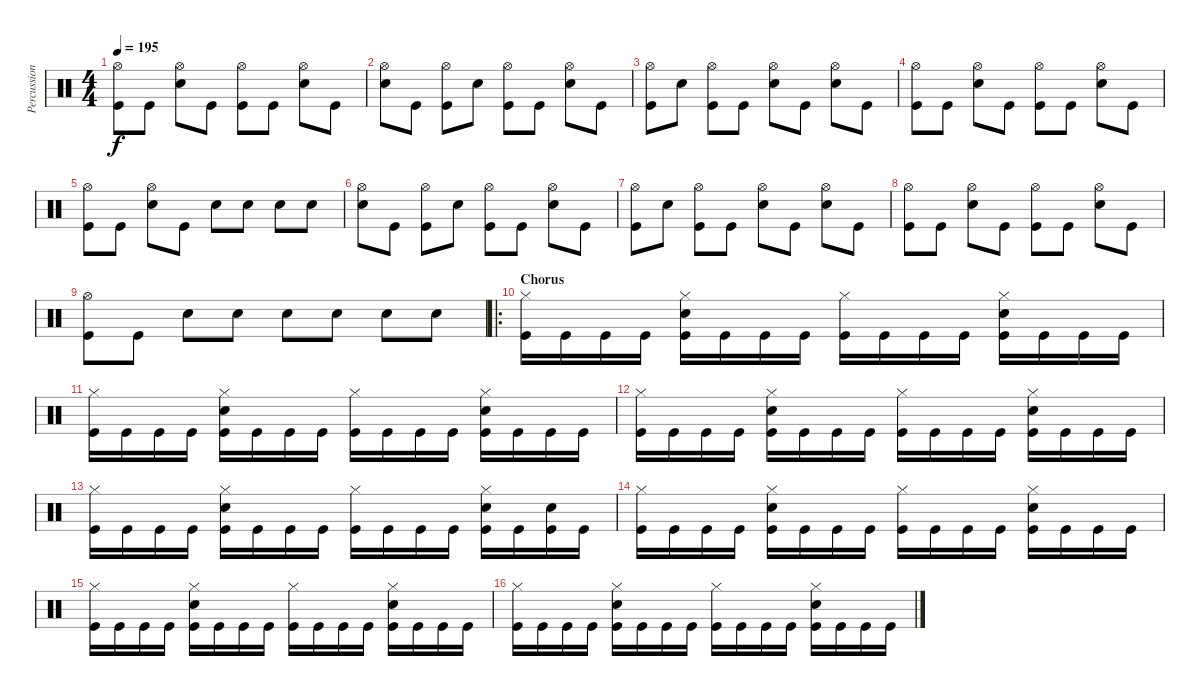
\track ("Percussion" "Percussion") {instrument percussion}
\staff {score}
\articulation defaults
\ts (4 4)
\tempo 195
\clef neutral
\ks c
("Hi-Hat (open)" "Kick (hit)").8{dy f} "Kick (hit)".8 ("Hi-Hat (open)" "Snare (hit) 2").8 "Kick (hit)".8 ("Hi-Hat (open)" "Kick (hit)").8 "Kick (hit)".8 ("Hi-Hat (open)" "Snare (hit) 2").8 "Kick (hit)".8 |
("Hi-Hat (open)" "Snare (hit) 2").8 "Kick (hit)".8 ("Hi-Hat (open)" "Kick (hit)").8 "Snare (hit) 2".8 ("Hi-Hat (open)" "Kick (hit)").8 "Kick (hit)".8 ("Hi-Hat (open)" "Snare (hit) 2").8 "Kick (hit)".8 |
("Hi-Hat (open)" "Kick (hit)").8 "Snare (hit) 2".8 ("Hi-Hat (open)" "Kick (hit)").8 "Kick (hit)".8 ("Hi-Hat (open)" "Snare (hit) 2").8 "Kick (hit)".8 ("Hi-Hat (open)" "Snare (hit) 2").8 "Kick (hit)".8 |
("Hi-Hat (open)" "Kick (hit)").8 "Kick (hit)".8 ("Hi-Hat (open)" "Snare (hit) 2").8 "Kick (hit)".8 ("Hi-Hat (open)" "Kick (hit)").8 "Kick (hit)".8 ("Hi-Hat (open)" "Snare (hit) 2").8 "Kick (hit)".8 |
("Hi-Hat (open)" "Kick (hit)").8 "Kick (hit)".8 ("Hi-Hat (open)" "Snare (hit) 2").8 "Kick (hit)".8 "Snare (hit) 2".8 "Snare (hit) 2".8 "Snare (hit) 2".8 "Snare (hit) 2".8 |
("Hi-Hat (open)" "Snare (hit) 2").8 "Kick (hit)".8 ("Hi-Hat (open)" "Kick (hit)").8 "Snare (hit) 2".8 ("Hi-Hat (open)" "Kick (hit)").8 "Kick (hit)".8 ("Hi-Hat (open)" "Snare (hit) 2").8 "Kick (hit)".8 |
("Hi-Hat (open)" "Kick (hit)").8 "Snare (hit) 2".8 ("Hi-Hat (open)" "Kick (hit)").8 "Kick (hit)".8 ("Hi-Hat (open)" "Snare (hit) 2").8 "Kick (hit)".8 ("Hi-Hat (open)" "Snare (hit) 2").8 "Kick (hit)".8 |
("Hi-Hat (open)" "Kick (hit)").8 "Kick (hit)".8 ("Hi-Hat (open)" "Snare (hit) 2").8 "Kick (hit)".8 ("Hi-Hat (open)" "Kick (hit)").8 "Kick (hit)".8 ("Hi-Hat (open)" "Snare (hit) 2").8 "Kick (hit)".8 |
("Hi-Hat (open)" "Kick (hit)").8 "Kick (hit)".8 "Snare (hit) 2".8 "Snare (hit) 2".8 "Snare (hit) 2".8 "Snare (hit) 2".8 "Snare (hit) 2".8 "Snare (hit) 2".8 |
\ro
\section ("" "Chorus")
("Hi-Hat (closed)" "Kick (hit)").16 "Kick (hit)".16 "Kick (hit)".16 "Kick (hit)".16 ("Hi-Hat (closed)" "Snare (hit) 2" "Kick (hit)").16 "Kick (hit)".16 "Kick (hit)".16 "Kick (hit)".16 ("Hi-Hat (closed)" "Kick (hit)").16 "Kick (hit)".16 "Kick (hit)".16 "Kick (hit)".16 ("Hi-Hat (closed)" "Snare (hit) 2" "Kick (hit)").16 "Kick (hit)".16 "Kick (hit)".16 "Kick (hit)".16 |
("Hi-Hat (closed)" "Kick (hit)").16 "Kick (hit)".16 "Kick (hit)".16 "Kick (hit)".16 ("Hi-Hat (closed)" "Snare (hit) 2" "Kick (hit)").16 "Kick (hit)".16 "Kick (hit)".16 "Kick (hit)".16 ("Hi-Hat (closed)" "Kick (hit)").16 "Kick (hit)".16 "Kick (hit)".16 "Kick (hit)".16 ("Hi-Hat (closed)" "Snare (hit) 2" "Kick (hit)").16 "Kick (hit)".16 "Kick (hit)".16 "Kick (hit)".16 |
("Hi-Hat (closed)" "Kick (hit)").16 "Kick (hit)".16 "Kick (hit)".16 "Kick (hit)".16 ("Hi-Hat (closed)" "Snare (hit) 2" "Kick (hit)").16 "Kick (hit)".16 "Kick (hit)".16 "Kick (hit)".16 ("Hi-Hat (closed)" "Kick (hit)").16 "Kick (hit)".16 "Kick (hit)".16 "Kick (hit)".16 ("Hi-Hat (closed)" "Snare (hit) 2" "Kick (hit)").16 "Kick (hit)".16 "Kick (hit)".16 "Kick (hit)".16 |
("Hi-Hat (closed)" "Kick (hit)").16 "Kick (hit)".16 "Kick (hit)".16 "Kick (hit)".16 ("Hi-Hat (closed)" "Snare (hit) 2" "Kick (hit)").16 "Kick (hit)".16 "Kick (hit)".16 "Kick (hit)".16 ("Hi-Hat (closed)" "Kick (hit)").16 "Kick (hit)".16 "Kick (hit)".16 "Kick (hit)".16 ("Hi-Hat (closed)" "Snare (hit) 2" "Kick (hit)").16 "Kick (hit)".16 ("Snare (hit) 2" "Kick (hit)").16 "Kick (hit)".16 |
("Hi-Hat (closed)" "Kick (hit)").16 "Kick (hit)".16 "Kick (hit)".16 "Kick (hit)".16 ("Hi-Hat (closed)" "Snare (hit) 2" "Kick (hit)").16 "Kick (hit)".16 "Kick (hit)".16 "Kick (hit)".16 ("Hi-Hat (closed)" "Kick (hit)").16 "Kick (hit)".16 "Kick (hit)".16 "Kick (hit)".16 ("Hi-Hat (closed)" "Snare (hit) 2" "Kick (hit)").16 "Kick (hit)".16 "Kick (hit)".16 "Kick (hit)".16 |
("Hi-Hat (closed)" "Kick (hit)").16 "Kick (hit)".16 "Kick (hit)".16 "Kick (hit)".16 ("Hi-Hat (closed)" "Snare (hit) 2" "Kick (hit)").16 "Kick (hit)".16 "Kick (hit)".16 "Kick (hit)".16 ("Hi-Hat (closed)" "Kick (hit)").16 "Kick (hit)".16 "Kick (hit)".16 "Kick (hit)".16 ("Hi-Hat (closed)" "Snare (hit) 2" "Kick (hit)").16 "Kick (hit)".16 "Kick (hit)".16 "Kick (hit)".16 |
("Hi-Hat (closed)" "Kick (hit)").16 "Kick (hit)".16 "Kick (hit)".16 "Kick (hit)".16 ("Hi-Hat (closed)" "Snare (hit) 2" "Kick (hit)").16 "Kick (hit)".16 "Kick (hit)".16 "Kick (hit)".16 ("Hi-Hat (closed)" "Kick (hit)").16 "Kick (hit)".16 "Kick (hit)".16 "Kick (hit)".16 ("Hi-Hat (closed)" "Snare (hit) 2" "Kick (hit)").16 "Kick (hit)".16 "Kick (hit)".16 "Kick (hit)".16
